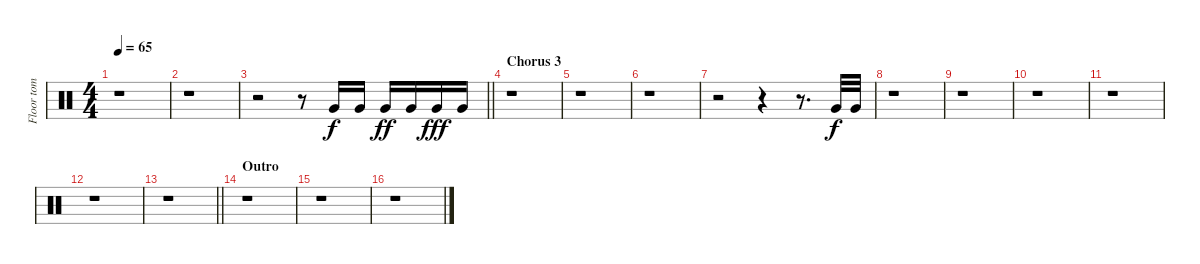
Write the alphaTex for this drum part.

\track ("Floor tom" "Floor tom") {instrument percussion}
\staff {score}
\articulation defaults
\ts (4 4)
\tempo 65
\clef neutral
\ks c
r.1{dy ff} |
r.1 |
\barLineRight lightlight
r.2 r.8 "Very Low Tom (hit)".16{dy f} "Very Low Tom (hit)".16 "Very Low Tom (hit)".16{dy ff} "Very Low Tom (hit)".16 "Very Low Tom (hit)".16{dy fff} "Very Low Tom (hit)".16 |
\section ("" "Chorus 3")
r.1 |
r.1 |
r.1 |
r.2 r.4 r.8{d} "Very Low Tom (hit)".32{dy f} "Very Low Tom (hit)".32 |
r.1 |
r.1 |
r.1 |
r.1 |
r.1 |
\barLineRight lightlight
r.1 |
\section ("" "Outro")
r.1 |
r.1 |
r.1
